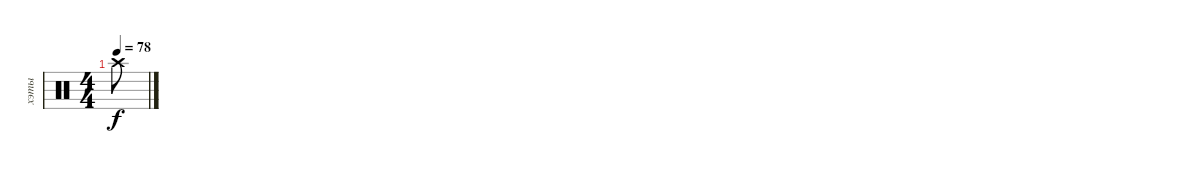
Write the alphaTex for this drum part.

\track ("хэты" "хэты") {instrument percussion}
\staff {score}
\articulation defaults
\ts (4 4)
\tempo 78
\clef neutral
\ks c "Crash high (hit)".8{dy f}
